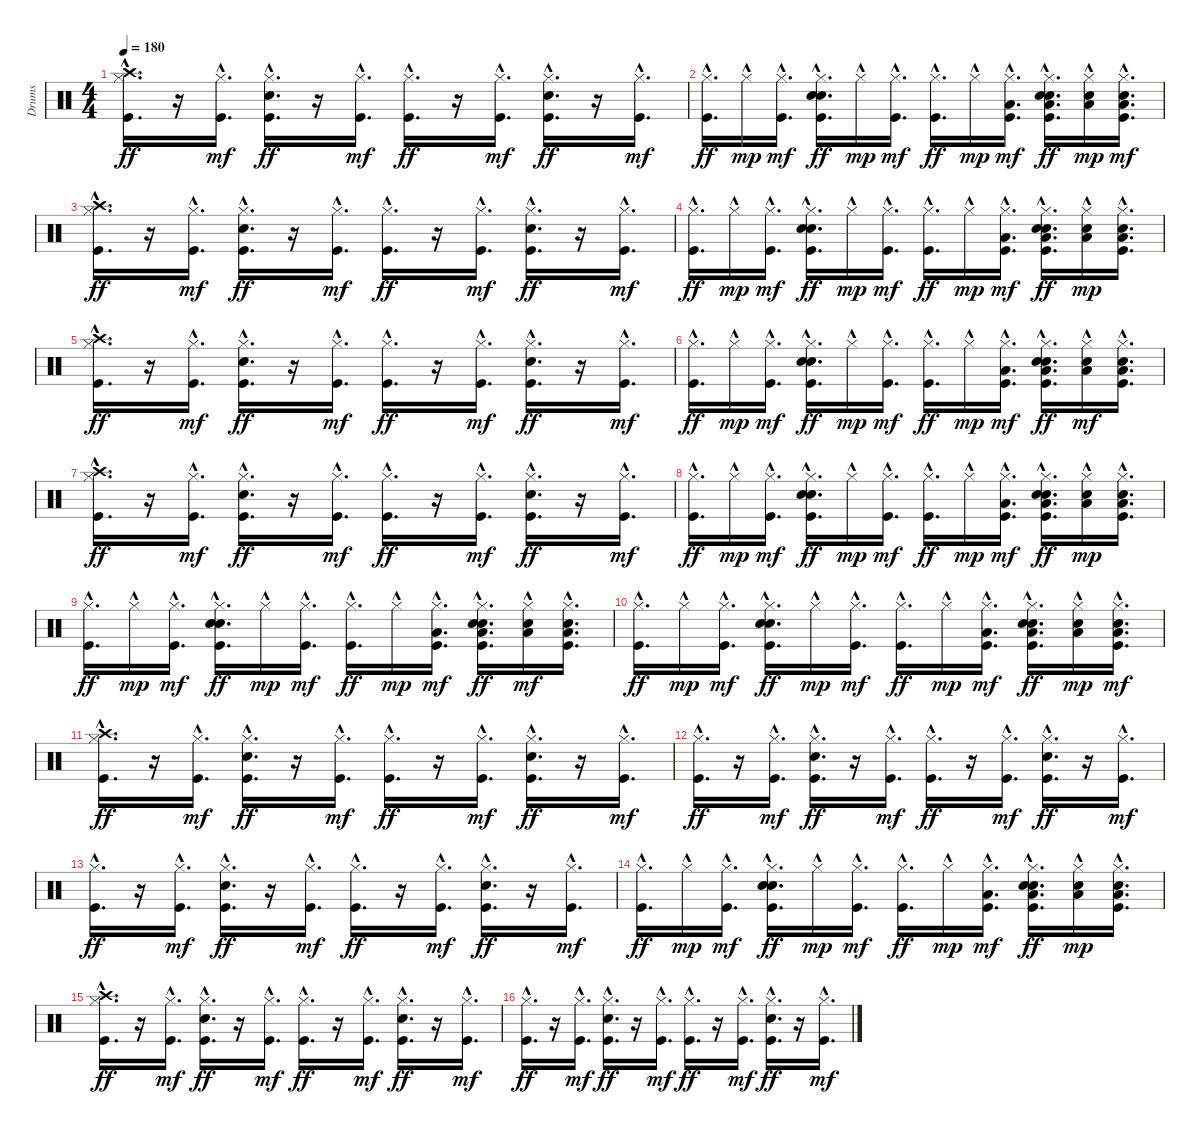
\track ("Drums" "Drums") {instrument percussion}
\staff {score}
\articulation defaults
\ts (4 4)
\tempo 180
\clef neutral
\ks c
("Kick (hit)"{hac} "Hi-Hat (closed)"{hac} "Crash high (hit)"{hac}).16{d dy ff} r.16 ("Kick (hit)"{hac} "Hi-Hat (closed)"{hac}).16{d dy mf} ("Hi-Hat (closed)"{hac} "Snare (hit) 2"{hac} "Kick (hit)"{hac}).16{d dy ff} r.16 ("Kick (hit)"{hac} "Hi-Hat (closed)"{hac}).16{d dy mf} ("Kick (hit)"{hac} "Hi-Hat (closed)"{hac}).16{d dy ff} r.16 ("Kick (hit)"{hac} "Hi-Hat (closed)"{hac}).16{d dy mf} ("Snare (hit) 2"{hac} "Hi-Hat (closed)"{hac} "Kick (hit)"{hac}).16{d dy ff} r.16 ("Kick (hit)"{hac} "Hi-Hat (closed)"{hac}).16{d dy mf} |
("Kick (hit)"{hac} "Hi-Hat (closed)"{hac}).16{d dy ff} "Hi-Hat (closed)"{hac}.16{dy mp} ("Kick (hit)"{hac} "Hi-Hat (closed)"{hac}).16{d dy mf} ("Hi-Hat (closed)"{hac} "Snare (hit) 2"{hac} "Kick (hit)"{hac} "Hand Clap (hit)"{hac}).16{d dy ff} "Hi-Hat (closed)"{hac}.16{dy mp} ("Kick (hit)"{hac} "Hi-Hat (closed)"{hac}).16{d dy mf} ("Kick (hit)"{hac} "Hi-Hat (closed)"{hac}).16{d dy ff} "Hi-Hat (closed)"{hac}.16{dy mp} ("Hi-Hat (closed)"{hac} "Kick (hit)"{hac} "Low Tom (hit)"{hac}).16{d dy mf} ("Hi-Hat (closed)"{hac} "Snare (hit) 2"{hac} "Kick (hit)"{hac} "Low Tom (hit)"{hac} "Hand Clap (hit)"{hac}).16{d dy ff} ("Low Tom (hit)"{hac} "Hi-Hat (closed)"{hac} "Snare (hit) 2"{hac}).16{dy mp} ("Snare (hit) 2"{hac} "Kick (hit)"{hac} "Hi-Hat (closed)"{hac} "Low Tom (hit)"{hac}).16{d dy mf} |
("Kick (hit)"{hac} "Hi-Hat (closed)"{hac} "Crash high (hit)"{hac}).16{d dy ff} r.16 ("Kick (hit)"{hac} "Hi-Hat (closed)"{hac}).16{d dy mf} ("Snare (hit) 2"{hac} "Kick (hit)"{hac} "Hi-Hat (closed)"{hac}).16{d dy ff} r.16 ("Kick (hit)"{hac} "Hi-Hat (closed)"{hac}).16{d dy mf} ("Kick (hit)"{hac} "Hi-Hat (closed)"{hac}).16{d dy ff} r.16 ("Kick (hit)"{hac} "Hi-Hat (closed)"{hac}).16{d dy mf} ("Hi-Hat (closed)"{hac} "Snare (hit) 2"{hac} "Kick (hit)"{hac}).16{d dy ff} r.16 ("Kick (hit)"{hac} "Hi-Hat (closed)"{hac}).16{d dy mf} |
("Kick (hit)"{hac} "Hi-Hat (closed)"{hac}).16{d dy ff} "Hi-Hat (closed)"{hac}.16{dy mp} ("Kick (hit)"{hac} "Hi-Hat (closed)"{hac}).16{d dy mf} ("Snare (hit) 2"{hac} "Kick (hit)"{hac} "Hi-Hat (closed)"{hac} "Hand Clap (hit)"{hac}).16{d dy ff} "Hi-Hat (closed)"{hac}.16{dy mp} ("Kick (hit)"{hac} "Hi-Hat (closed)"{hac}).16{d dy mf} ("Kick (hit)"{hac} "Hi-Hat (closed)"{hac}).16{d dy ff} "Hi-Hat (closed)"{hac}.16{dy mp} ("Hi-Hat (closed)"{hac} "Kick (hit)"{hac} "Low Tom (hit)"{hac}).16{d dy mf} ("Hi-Hat (closed)"{hac} "Snare (hit) 2"{hac} "Kick (hit)"{hac} "Low Tom (hit)"{hac} "Hand Clap (hit)"{hac}).16{d dy ff} ("Hi-Hat (closed)"{hac} "Low Tom (hit)"{hac} "Snare (hit) 2"{hac}).16{dy mp} ("Hi-Hat (closed)"{hac} "Low Tom (hit)"{hac} "Kick (hit)"{hac} "Snare (hit) 2"{hac}).16{d} |
("Crash high (hit)"{hac} "Hi-Hat (closed)"{hac} "Kick (hit)"{hac}).16{d dy ff} r.16 ("Kick (hit)"{hac} "Hi-Hat (closed)"{hac}).16{d dy mf} ("Kick (hit)"{hac} "Snare (hit) 2"{hac} "Hi-Hat (closed)"{hac}).16{d dy ff} r.16 ("Kick (hit)"{hac} "Hi-Hat (closed)"{hac}).16{d dy mf} ("Kick (hit)"{hac} "Hi-Hat (closed)"{hac}).16{d dy ff} r.16 ("Hi-Hat (closed)"{hac} "Kick (hit)"{hac}).16{d dy mf} ("Kick (hit)"{hac} "Snare (hit) 2"{hac} "Hi-Hat (closed)"{hac}).16{d dy ff} r.16 ("Kick (hit)"{hac} "Hi-Hat (closed)"{hac}).16{d dy mf} |
("Kick (hit)"{hac} "Hi-Hat (closed)"{hac}).16{d dy ff} "Hi-Hat (closed)"{hac}.16{dy mp} ("Kick (hit)"{hac} "Hi-Hat (closed)"{hac}).16{d dy mf} ("Kick (hit)"{hac} "Hand Clap (hit)"{hac} "Hi-Hat (closed)"{hac} "Snare (hit) 2"{hac}).16{d dy ff} "Hi-Hat (closed)"{hac}.16{dy mp} ("Kick (hit)"{hac} "Hi-Hat (closed)"{hac}).16{d dy mf} ("Hi-Hat (closed)"{hac} "Kick (hit)"{hac}).16{d dy ff} "Hi-Hat (closed)"{hac}.16{dy mp} ("Low Tom (hit)"{hac} "Hi-Hat (closed)"{hac} "Kick (hit)"{hac}).16{d dy mf} ("Kick (hit)"{hac} "Hand Clap (hit)"{hac} "Hi-Hat (closed)"{hac} "Snare (hit) 2"{hac} "Low Tom (hit)"{hac}).16{d dy ff} ("Hi-Hat (closed)"{hac} "Snare (hit) 2"{hac} "Low Tom (hit)"{hac}).16{dy mf} ("Hi-Hat (closed)"{hac} "Snare (hit) 2"{hac} "Kick (hit)"{hac} "Low Tom (hit)"{hac}).16{d} |
("Kick (hit)"{hac} "Crash high (hit)"{hac} "Hi-Hat (closed)"{hac}).16{d dy ff} r.16 ("Kick (hit)"{hac} "Hi-Hat (closed)"{hac}).16{d dy mf} ("Hi-Hat (closed)"{hac} "Snare (hit) 2"{hac} "Kick (hit)"{hac}).16{d dy ff} r.16 ("Kick (hit)"{hac} "Hi-Hat (closed)"{hac}).16{d dy mf} ("Hi-Hat (closed)"{hac} "Kick (hit)"{hac}).16{d dy ff} r.16 ("Hi-Hat (closed)"{hac} "Kick (hit)"{hac}).16{d dy mf} ("Hi-Hat (closed)"{hac} "Snare (hit) 2"{hac} "Kick (hit)"{hac}).16{d dy ff} r.16 ("Kick (hit)"{hac} "Hi-Hat (closed)"{hac}).16{d dy mf} |
("Kick (hit)"{hac} "Hi-Hat (closed)"{hac}).16{d dy ff} "Hi-Hat (closed)"{hac}.16{dy mp} ("Kick (hit)"{hac} "Hi-Hat (closed)"{hac}).16{d dy mf} ("Hi-Hat (closed)"{hac} "Snare (hit) 2"{hac} "Kick (hit)"{hac} "Hand Clap (hit)"{hac}).16{d dy ff} "Hi-Hat (closed)"{hac}.16{dy mp} ("Hi-Hat (closed)"{hac} "Kick (hit)"{hac}).16{d dy mf} ("Hi-Hat (closed)"{hac} "Kick (hit)"{hac}).16{d dy ff} "Hi-Hat (closed)"{hac}.16{dy mp} ("Low Tom (hit)"{hac} "Hi-Hat (closed)"{hac} "Kick (hit)"{hac}).16{d dy mf} ("Low Tom (hit)"{hac} "Hand Clap (hit)"{hac} "Kick (hit)"{hac} "Snare (hit) 2"{hac} "Hi-Hat (closed)"{hac}).16{d dy ff} ("Low Tom (hit)"{hac} "Hi-Hat (closed)"{hac} "Snare (hit) 2"{hac}).16{dy mp} ("Kick (hit)"{hac} "Low Tom (hit)"{hac} "Hi-Hat (closed)"{hac} "Snare (hit) 2"{hac}).16{d} |
("Kick (hit)"{hac} "Hi-Hat (closed)"{hac}).16{d dy ff} "Hi-Hat (closed)"{hac}.16{dy mp} ("Hi-Hat (closed)"{hac} "Kick (hit)"{hac}).16{d dy mf} ("Hi-Hat (closed)"{hac} "Hand Clap (hit)"{hac} "Kick (hit)"{hac} "Snare (hit) 2"{hac}).16{d dy ff} "Hi-Hat (closed)"{hac}.16{dy mp} ("Kick (hit)"{hac} "Hi-Hat (closed)"{hac}).16{d dy mf} ("Hi-Hat (closed)"{hac} "Kick (hit)"{hac}).16{d dy ff} "Hi-Hat (closed)"{hac}.16{dy mp} ("Low Tom (hit)"{hac} "Hi-Hat (closed)"{hac} "Kick (hit)"{hac}).16{d dy mf} ("Hand Clap (hit)"{hac} "Low Tom (hit)"{hac} "Kick (hit)"{hac} "Snare (hit) 2"{hac} "Hi-Hat (closed)"{hac}).16{d dy ff} ("Snare (hit) 2"{hac} "Hi-Hat (closed)"{hac} "Low Tom (hit)"{hac}).16{dy mf} ("Kick (hit)"{hac} "Snare (hit) 2"{hac} "Hi-Hat (closed)"{hac} "Low Tom (hit)"{hac}).16{d} |
("Hi-Hat (closed)"{hac} "Kick (hit)"{hac}).16{d dy ff} "Hi-Hat (closed)"{hac}.16{dy mp} ("Kick (hit)"{hac} "Hi-Hat (closed)"{hac}).16{d dy mf} ("Kick (hit)"{hac} "Snare (hit) 2"{hac} "Hi-Hat (closed)"{hac} "Hand Clap (hit)"{hac}).16{d dy ff} "Hi-Hat (closed)"{hac}.16{dy mp} ("Kick (hit)"{hac} "Hi-Hat (closed)"{hac}).16{d dy mf} ("Kick (hit)"{hac} "Hi-Hat (closed)"{hac}).16{d dy ff} "Hi-Hat (closed)"{hac}.16{dy mp} ("Kick (hit)"{hac} "Hi-Hat (closed)"{hac} "Low Tom (hit)"{hac}).16{d dy mf} ("Low Tom (hit)"{hac} "Hi-Hat (closed)"{hac} "Kick (hit)"{hac} "Snare (hit) 2"{hac} "Hand Clap (hit)"{hac}).16{d dy ff} ("Low Tom (hit)"{hac} "Hi-Hat (closed)"{hac} "Snare (hit) 2"{hac}).16{dy mp} ("Low Tom (hit)"{hac} "Snare (hit) 2"{hac} "Kick (hit)"{hac} "Hi-Hat (closed)"{hac}).16{d dy mf} |
("Hi-Hat (closed)"{hac} "Kick (hit)"{hac} "Crash high (hit)"{hac}).16{d dy ff} r.16 ("Kick (hit)"{hac} "Hi-Hat (closed)"{hac}).16{d dy mf} ("Kick (hit)"{hac} "Snare (hit) 2"{hac} "Hi-Hat (closed)"{hac}).16{d dy ff} r.16 ("Hi-Hat (closed)"{hac} "Kick (hit)"{hac}).16{d dy mf} ("Kick (hit)"{hac} "Hi-Hat (closed)"{hac}).16{d dy ff} r.16 ("Kick (hit)"{hac} "Hi-Hat (closed)"{hac}).16{d dy mf} ("Kick (hit)"{hac} "Snare (hit) 2"{hac} "Hi-Hat (closed)"{hac}).16{d dy ff} r.16 ("Hi-Hat (closed)"{hac} "Kick (hit)"{hac}).16{d dy mf} |
("Hi-Hat (closed)"{hac} "Kick (hit)"{hac}).16{d dy ff} r.16 ("Kick (hit)"{hac} "Hi-Hat (closed)"{hac}).16{d dy mf} ("Kick (hit)"{hac} "Snare (hit) 2"{hac} "Hi-Hat (closed)"{hac}).16{d dy ff} r.16 ("Kick (hit)"{hac} "Hi-Hat (closed)"{hac}).16{d dy mf} ("Hi-Hat (closed)"{hac} "Kick (hit)"{hac}).16{d dy ff} r.16 ("Kick (hit)"{hac} "Hi-Hat (closed)"{hac}).16{d dy mf} ("Kick (hit)"{hac} "Snare (hit) 2"{hac} "Hi-Hat (closed)"{hac}).16{d dy ff} r.16 ("Kick (hit)"{hac} "Hi-Hat (closed)"{hac}).16{d dy mf} |
("Kick (hit)"{hac} "Hi-Hat (closed)"{hac}).16{d dy ff} r.16 ("Kick (hit)"{hac} "Hi-Hat (closed)"{hac}).16{d dy mf} ("Hi-Hat (closed)"{hac} "Snare (hit) 2"{hac} "Kick (hit)"{hac}).16{d dy ff} r.16 ("Kick (hit)"{hac} "Hi-Hat (closed)"{hac}).16{d dy mf} ("Hi-Hat (closed)"{hac} "Kick (hit)"{hac}).16{d dy ff} r.16 ("Kick (hit)"{hac} "Hi-Hat (closed)"{hac}).16{d dy mf} ("Hi-Hat (closed)"{hac} "Snare (hit) 2"{hac} "Kick (hit)"{hac}).16{d dy ff} r.16 ("Kick (hit)"{hac} "Hi-Hat (closed)"{hac}).16{d dy mf} |
("Hi-Hat (closed)"{hac} "Kick (hit)"{hac}).16{d dy ff} "Hi-Hat (closed)"{hac}.16{dy mp} ("Kick (hit)"{hac} "Hi-Hat (closed)"{hac}).16{d dy mf} ("Hi-Hat (closed)"{hac} "Snare (hit) 2"{hac} "Kick (hit)"{hac} "Hand Clap (hit)"{hac}).16{d dy ff} "Hi-Hat (closed)"{hac}.16{dy mp} ("Hi-Hat (closed)"{hac} "Kick (hit)"{hac}).16{d dy mf} ("Kick (hit)"{hac} "Hi-Hat (closed)"{hac}).16{d dy ff} "Hi-Hat (closed)"{hac}.16{dy mp} ("Kick (hit)"{hac} "Hi-Hat (closed)"{hac} "Low Tom (hit)"{hac}).16{d dy mf} ("Hand Clap (hit)"{hac} "Low Tom (hit)"{hac} "Kick (hit)"{hac} "Snare (hit) 2"{hac} "Hi-Hat (closed)"{hac}).16{d dy ff} ("Low Tom (hit)"{hac} "Hi-Hat (closed)"{hac} "Snare (hit) 2"{hac}).16{dy mp} ("Kick (hit)"{hac} "Low Tom (hit)"{hac} "Hi-Hat (closed)"{hac} "Snare (hit) 2"{hac}).16{d} |
("Hi-Hat (closed)"{hac} "Kick (hit)"{hac} "Crash high (hit)"{hac}).16{d dy ff} r.16 ("Kick (hit)"{hac} "Hi-Hat (closed)"{hac}).16{d dy mf} ("Kick (hit)"{hac} "Snare (hit) 2"{hac} "Hi-Hat (closed)"{hac}).16{d dy ff} r.16 ("Hi-Hat (closed)"{hac} "Kick (hit)"{hac}).16{d dy mf} ("Kick (hit)"{hac} "Hi-Hat (closed)"{hac}).16{d dy ff} r.16 ("Kick (hit)"{hac} "Hi-Hat (closed)"{hac}).16{d dy mf} ("Hi-Hat (closed)"{hac} "Snare (hit) 2"{hac} "Kick (hit)"{hac}).16{d dy ff} r.16 ("Kick (hit)"{hac} "Hi-Hat (closed)"{hac}).16{d dy mf} |
("Hi-Hat (closed)"{hac} "Kick (hit)"{hac}).16{d dy ff} r.16 ("Kick (hit)"{hac} "Hi-Hat (closed)"{hac}).16{d dy mf} ("Hi-Hat (closed)"{hac} "Snare (hit) 2"{hac} "Kick (hit)"{hac}).16{d dy ff} r.16 ("Kick (hit)"{hac} "Hi-Hat (closed)"{hac}).16{d dy mf} ("Hi-Hat (closed)"{hac} "Kick (hit)"{hac}).16{d dy ff} r.16 ("Hi-Hat (closed)"{hac} "Kick (hit)"{hac}).16{d dy mf} ("Hi-Hat (closed)"{hac} "Snare (hit) 2"{hac} "Kick (hit)"{hac}).16{d dy ff} r.16 ("Kick (hit)"{hac} "Hi-Hat (closed)"{hac}).16{d dy mf}
